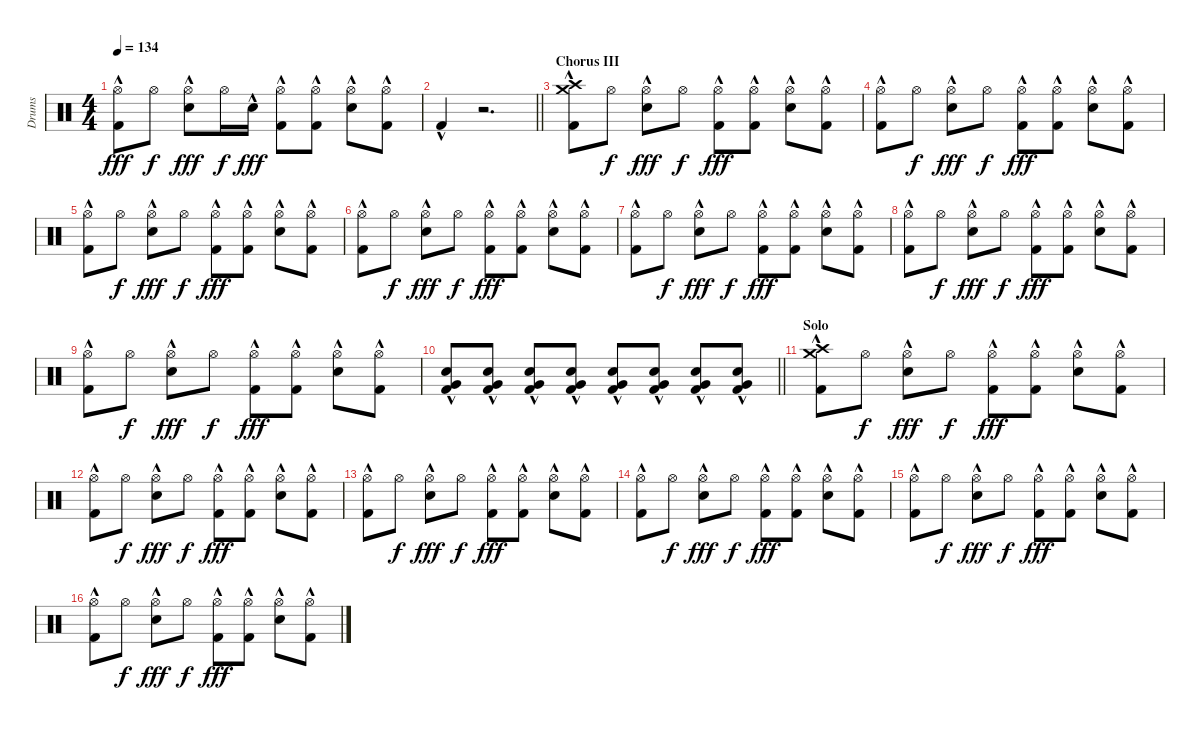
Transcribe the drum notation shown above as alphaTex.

\track ("Drums" "Drums") {instrument percussion}
\staff {score}
\articulation defaults
\ts (4 4)
\tempo 134
\clef neutral
\ks c
("Hi-Hat (open)" "Kick (hit) 2"{hac}).8{dy fff} "Hi-Hat (open)".8{dy f} ("Hi-Hat (open)" "Snare (hit) 2"{hac}).8{dy fff} "Hi-Hat (open)".16{dy f} "Snare (hit) 2"{hac}.16{dy fff} ("Hi-Hat (open)" "Kick (hit) 2"{hac}).8 ("Hi-Hat (open)"{hac} "Kick (hit) 2"{hac}).8 ("Hi-Hat (open)" "Snare (hit) 2"{hac}).8 ("Hi-Hat (open)" "Kick (hit) 2"{hac}).8 |
\barLineRight lightlight "Kick (hit) 2"{hac}.4
r.2{d} |
\section ("" "Chorus III")
("Crash medium (hit)" "Crash high (hit)" "Kick (hit) 2"{hac}).8 "Hi-Hat (open)".8{dy f} ("Hi-Hat (open)" "Snare (hit) 2"{hac}).8{dy fff} "Hi-Hat (open)".8{dy f} ("Hi-Hat (open)" "Kick (hit) 2"{hac}).8{dy fff} ("Hi-Hat (open)" "Kick (hit) 2"{hac}).8 ("Hi-Hat (open)" "Snare (hit) 2"{hac}).8 ("Hi-Hat (open)" "Kick (hit) 2"{hac}).8 |
("Hi-Hat (open)" "Kick (hit) 2"{hac}).8 "Hi-Hat (open)".8{dy f} ("Hi-Hat (open)" "Snare (hit) 2"{hac}).8{dy fff} "Hi-Hat (open)".8{dy f} ("Hi-Hat (open)" "Kick (hit) 2"{hac}).8{dy fff} ("Hi-Hat (open)" "Kick (hit) 2"{hac}).8 ("Hi-Hat (open)" "Snare (hit) 2"{hac}).8 ("Hi-Hat (open)" "Kick (hit) 2"{hac}).8 |
("Hi-Hat (open)" "Kick (hit) 2"{hac}).8 "Hi-Hat (open)".8{dy f} ("Hi-Hat (open)" "Snare (hit) 2"{hac}).8{dy fff} "Hi-Hat (open)".8{dy f} ("Hi-Hat (open)" "Kick (hit) 2"{hac}).8{dy fff} ("Hi-Hat (open)" "Kick (hit) 2"{hac}).8 ("Hi-Hat (open)" "Snare (hit) 2"{hac}).8 ("Hi-Hat (open)" "Kick (hit) 2"{hac}).8 |
("Hi-Hat (open)" "Kick (hit) 2"{hac}).8 "Hi-Hat (open)".8{dy f} ("Hi-Hat (open)" "Snare (hit) 2"{hac}).8{dy fff} "Hi-Hat (open)".8{dy f} ("Hi-Hat (open)" "Kick (hit) 2"{hac}).8{dy fff} ("Hi-Hat (open)" "Kick (hit) 2"{hac}).8 ("Hi-Hat (open)" "Snare (hit) 2"{hac}).8 ("Hi-Hat (open)" "Kick (hit) 2"{hac}).8 |
("Hi-Hat (open)" "Kick (hit) 2"{hac}).8 "Hi-Hat (open)".8{dy f} ("Hi-Hat (open)" "Snare (hit) 2"{hac}).8{dy fff} "Hi-Hat (open)".8{dy f} ("Hi-Hat (open)" "Kick (hit) 2"{hac}).8{dy fff} ("Hi-Hat (open)" "Kick (hit) 2"{hac}).8 ("Hi-Hat (open)" "Snare (hit) 2"{hac}).8 ("Hi-Hat (open)" "Kick (hit) 2"{hac}).8 |
("Hi-Hat (open)" "Kick (hit) 2"{hac}).8 "Hi-Hat (open)".8{dy f} ("Hi-Hat (open)" "Snare (hit) 2"{hac}).8{dy fff} "Hi-Hat (open)".8{dy f} ("Hi-Hat (open)" "Kick (hit) 2"{hac}).8{dy fff} ("Hi-Hat (open)" "Kick (hit) 2"{hac}).8 ("Hi-Hat (open)" "Snare (hit) 2"{hac}).8 ("Hi-Hat (open)" "Kick (hit) 2"{hac}).8 |
("Hi-Hat (open)" "Kick (hit) 2"{hac}).8 "Hi-Hat (open)".8{dy f} ("Hi-Hat (open)" "Snare (hit) 2"{hac}).8{dy fff} "Hi-Hat (open)".8{dy f} ("Hi-Hat (open)" "Kick (hit) 2"{hac}).8{dy fff} ("Hi-Hat (open)" "Kick (hit) 2"{hac}).8 ("Hi-Hat (open)" "Snare (hit) 2"{hac}).8 ("Hi-Hat (open)" "Kick (hit) 2"{hac}).8 |
\barLineRight lightlight
("Snare (hit) 2" "Very Low Tom (hit)"{hac} "Kick (hit) 2"{hac}).8 ("Snare (hit) 2" "Very Low Tom (hit)"{hac} "Kick (hit) 2"{hac}).8 ("Snare (hit) 2" "Very Low Tom (hit)"{hac} "Kick (hit) 2"{hac}).8 ("Snare (hit) 2" "Very Low Tom (hit)"{hac} "Kick (hit) 2"{hac}).8 ("Snare (hit) 2" "Very Low Tom (hit)"{hac} "Kick (hit) 2"{hac}).8 ("Snare (hit) 2" "Very Low Tom (hit)"{hac} "Kick (hit) 2"{hac}).8 ("Snare (hit) 2" "Very Low Tom (hit)"{hac} "Kick (hit) 2"{hac}).8 ("Snare (hit) 2" "Very Low Tom (hit)"{hac} "Kick (hit) 2"{hac}).8 |
\section ("" "Solo")
("Crash medium (hit)" "Crash high (hit)" "Kick (hit) 2"{hac}).8 "Hi-Hat (open)".8{dy f} ("Hi-Hat (open)" "Snare (hit) 2"{hac}).8{dy fff} "Hi-Hat (open)".8{dy f} ("Hi-Hat (open)" "Kick (hit) 2"{hac}).8{dy fff} ("Hi-Hat (open)" "Kick (hit) 2"{hac}).8 ("Hi-Hat (open)" "Snare (hit) 2"{hac}).8 ("Hi-Hat (open)" "Kick (hit) 2"{hac}).8 |
("Hi-Hat (open)" "Kick (hit) 2"{hac}).8 "Hi-Hat (open)".8{dy f} ("Hi-Hat (open)" "Snare (hit) 2"{hac}).8{dy fff} "Hi-Hat (open)".8{dy f} ("Hi-Hat (open)" "Kick (hit) 2"{hac}).8{dy fff} ("Hi-Hat (open)" "Kick (hit) 2"{hac}).8 ("Hi-Hat (open)" "Snare (hit) 2"{hac}).8 ("Hi-Hat (open)" "Kick (hit) 2"{hac}).8 |
("Hi-Hat (open)" "Kick (hit) 2"{hac}).8 "Hi-Hat (open)".8{dy f} ("Hi-Hat (open)" "Snare (hit) 2"{hac}).8{dy fff} "Hi-Hat (open)".8{dy f} ("Hi-Hat (open)" "Kick (hit) 2"{hac}).8{dy fff} ("Hi-Hat (open)" "Kick (hit) 2"{hac}).8 ("Hi-Hat (open)" "Snare (hit) 2"{hac}).8 ("Hi-Hat (open)" "Kick (hit) 2"{hac}).8 |
("Hi-Hat (open)" "Kick (hit) 2"{hac}).8 "Hi-Hat (open)".8{dy f} ("Hi-Hat (open)" "Snare (hit) 2"{hac}).8{dy fff} "Hi-Hat (open)".8{dy f} ("Hi-Hat (open)" "Kick (hit) 2"{hac}).8{dy fff} ("Hi-Hat (open)" "Kick (hit) 2"{hac}).8 ("Hi-Hat (open)" "Snare (hit) 2"{hac}).8 ("Hi-Hat (open)" "Kick (hit) 2"{hac}).8 |
("Hi-Hat (open)" "Kick (hit) 2"{hac}).8 "Hi-Hat (open)".8{dy f} ("Hi-Hat (open)" "Snare (hit) 2"{hac}).8{dy fff} "Hi-Hat (open)".8{dy f} ("Hi-Hat (open)" "Kick (hit) 2"{hac}).8{dy fff} ("Hi-Hat (open)" "Kick (hit) 2"{hac}).8 ("Hi-Hat (open)" "Snare (hit) 2"{hac}).8 ("Hi-Hat (open)" "Kick (hit) 2"{hac}).8 |
("Hi-Hat (open)" "Kick (hit) 2"{hac}).8 "Hi-Hat (open)".8{dy f} ("Hi-Hat (open)" "Snare (hit) 2"{hac}).8{dy fff} "Hi-Hat (open)".8{dy f} ("Hi-Hat (open)" "Kick (hit) 2"{hac}).8{dy fff} ("Hi-Hat (open)" "Kick (hit) 2"{hac}).8 ("Hi-Hat (open)" "Snare (hit) 2"{hac}).8 ("Hi-Hat (open)" "Kick (hit) 2"{hac}).8
